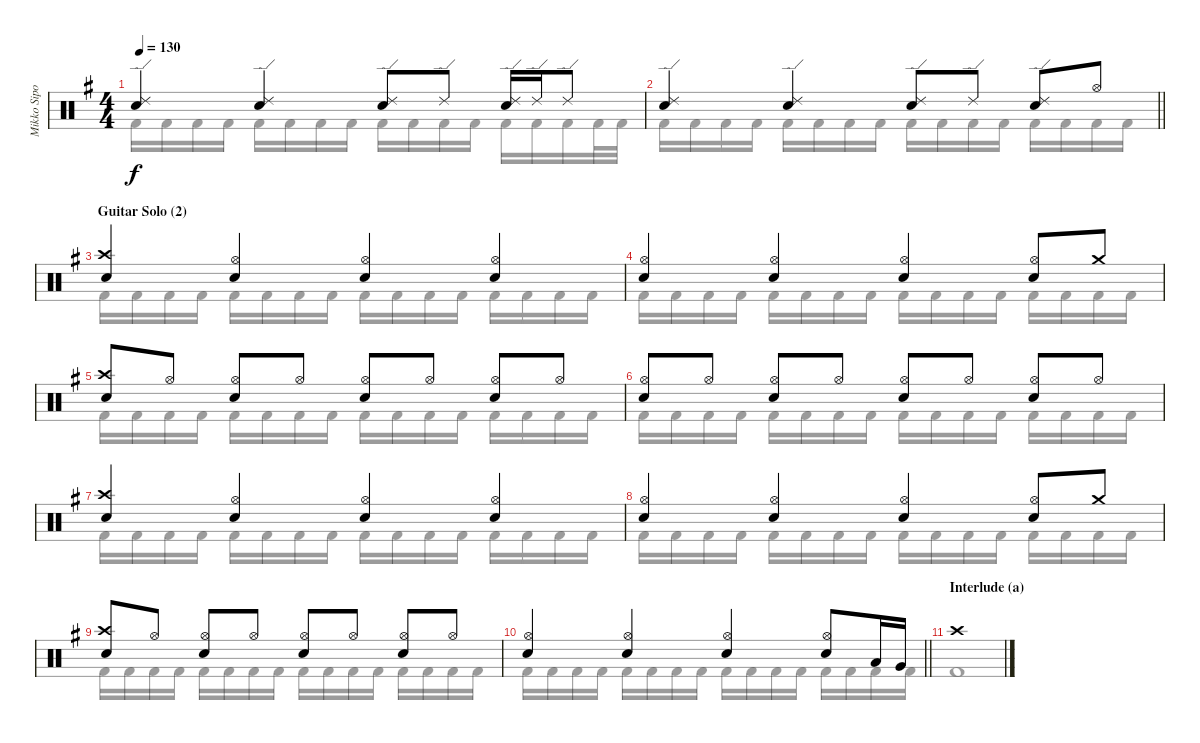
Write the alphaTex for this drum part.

\track ("Mikko Sipola (drums)" "Mikko Sipo") {instrument percussion}
\staff {score}
\articulation defaults
\voice
\ts (4 4)
\tempo 130
\clef neutral
\ks eminor
("Ride (edge) 2" "Electric Snare (hit)").4{dy f} ("Ride (edge) 2" "Electric Snare (hit)").4 ("Ride (edge) 2" "Electric Snare (hit)").8 "Ride (edge) 2".8 ("Ride (edge) 2" "Electric Snare (hit)").16 "Ride (edge) 2".16 "Ride (edge) 2".8 |
\barLineRight lightlight
("Ride (edge) 2" "Electric Snare (hit)").4 ("Ride (edge) 2" "Electric Snare (hit)").4 ("Ride (edge) 2" "Electric Snare (hit)").8 "Ride (edge) 2".8 ("Ride (edge) 2" "Electric Snare (hit)").8 "Hi-Hat (open)".8 |
\section ("" "Guitar Solo (2)")
("Crash high (hit)" "Electric Snare (hit)").4 ("Hi-Hat (open)" "Electric Snare (hit)").4 ("Hi-Hat (open)" "Electric Snare (hit)").4 ("Hi-Hat (open)" "Electric Snare (hit)").4 |
("Hi-Hat (open)" "Electric Snare (hit)").4 ("Hi-Hat (open)" "Electric Snare (hit)").4 ("Hi-Hat (open)" "Electric Snare (hit)").4 ("Hi-Hat (open)" "Electric Snare (hit)").8 "Crash medium (hit)".8 |
("Crash high (hit)" "Electric Snare (hit)").8 "Hi-Hat (open)".8 ("Hi-Hat (open)" "Electric Snare (hit)").8 "Hi-Hat (open)".8 ("Hi-Hat (open)" "Electric Snare (hit)").8 "Hi-Hat (open)".8 ("Hi-Hat (open)" "Electric Snare (hit)").8 "Hi-Hat (open)".8 |
("Hi-Hat (open)" "Electric Snare (hit)").8 "Hi-Hat (open)".8 ("Hi-Hat (open)" "Electric Snare (hit)").8 "Hi-Hat (open)".8 ("Hi-Hat (open)" "Electric Snare (hit)").8 "Hi-Hat (open)".8 ("Hi-Hat (open)" "Electric Snare (hit)").8 "Hi-Hat (open)".8 |
("Crash high (hit)" "Electric Snare (hit)").4 ("Hi-Hat (open)" "Electric Snare (hit)").4 ("Hi-Hat (open)" "Electric Snare (hit)").4 ("Hi-Hat (open)" "Electric Snare (hit)").4 |
("Hi-Hat (open)" "Electric Snare (hit)").4 ("Hi-Hat (open)" "Electric Snare (hit)").4 ("Hi-Hat (open)" "Electric Snare (hit)").4 ("Hi-Hat (open)" "Electric Snare (hit)").8 "Crash medium (hit)".8 |
("Crash high (hit)" "Electric Snare (hit)").8 "Hi-Hat (open)".8 ("Hi-Hat (open)" "Electric Snare (hit)").8 "Hi-Hat (open)".8 ("Hi-Hat (open)" "Electric Snare (hit)").8 "Hi-Hat (open)".8 ("Hi-Hat (open)" "Electric Snare (hit)").8 "Hi-Hat (open)".8 |
\barLineRight lightlight
("Hi-Hat (open)" "Electric Snare (hit)").4 ("Hi-Hat (open)" "Electric Snare (hit)").4 ("Hi-Hat (open)" "Electric Snare (hit)").4 ("Hi-Hat (open)" "Electric Snare (hit)").8 "Low Tom (hit)".16 "Very Low Tom (hit)".16 |
\section ("" "Interlude (a)")
"Crash high (hit)".1 |
|
|
|
|
\voice
\clef neutral
\ottava regular
\simile none
\ks eminor "Kick (hit) 2".16{dy f} "Kick (hit) 2".16 "Kick (hit) 2".16 "Kick (hit) 2".16 "Kick (hit) 2".16 "Kick (hit) 2".16 "Kick (hit) 2".16 "Kick (hit) 2".16 "Kick (hit) 2".16 "Kick (hit) 2".16 "Kick (hit) 2".16 "Kick (hit) 2".16 "Kick (hit) 2".16 "Kick (hit) 2".16 "Kick (hit) 2".16 "Kick (hit) 2".32 "Kick (hit) 2".32
|
\barLineRight lightlight "Kick (hit) 2".16 "Kick (hit) 2".16 "Kick (hit) 2".16 "Kick (hit) 2".16 "Kick (hit) 2".16 "Kick (hit) 2".16 "Kick (hit) 2".16 "Kick (hit) 2".16 "Kick (hit) 2".16 "Kick (hit) 2".16 "Kick (hit) 2".16 "Kick (hit) 2".16 "Kick (hit) 2".16 "Kick (hit) 2".16 "Kick (hit) 2".16 "Kick (hit) 2".16
|
"Kick (hit) 2".16 "Kick (hit) 2".16 "Kick (hit) 2".16 "Kick (hit) 2".16 "Kick (hit) 2".16 "Kick (hit) 2".16 "Kick (hit) 2".16 "Kick (hit) 2".16 "Kick (hit) 2".16 "Kick (hit) 2".16 "Kick (hit) 2".16 "Kick (hit) 2".16 "Kick (hit) 2".16 "Kick (hit) 2".16 "Kick (hit) 2".16 "Kick (hit) 2".16 |
"Kick (hit) 2".16 "Kick (hit) 2".16 "Kick (hit) 2".16 "Kick (hit) 2".16 "Kick (hit) 2".16 "Kick (hit) 2".16 "Kick (hit) 2".16 "Kick (hit) 2".16 "Kick (hit) 2".16 "Kick (hit) 2".16 "Kick (hit) 2".16 "Kick (hit) 2".16 "Kick (hit) 2".16 "Kick (hit) 2".16 "Kick (hit) 2".16 "Kick (hit) 2".16 |
"Kick (hit) 2".16 "Kick (hit) 2".16 "Kick (hit) 2".16 "Kick (hit) 2".16 "Kick (hit) 2".16 "Kick (hit) 2".16 "Kick (hit) 2".16 "Kick (hit) 2".16 "Kick (hit) 2".16 "Kick (hit) 2".16 "Kick (hit) 2".16 "Kick (hit) 2".16 "Kick (hit) 2".16 "Kick (hit) 2".16 "Kick (hit) 2".16 "Kick (hit) 2".16 |
"Kick (hit) 2".16 "Kick (hit) 2".16 "Kick (hit) 2".16 "Kick (hit) 2".16 "Kick (hit) 2".16 "Kick (hit) 2".16 "Kick (hit) 2".16 "Kick (hit) 2".16 "Kick (hit) 2".16 "Kick (hit) 2".16 "Kick (hit) 2".16 "Kick (hit) 2".16 "Kick (hit) 2".16 "Kick (hit) 2".16 "Kick (hit) 2".16 "Kick (hit) 2".16 |
"Kick (hit) 2".16 "Kick (hit) 2".16 "Kick (hit) 2".16 "Kick (hit) 2".16 "Kick (hit) 2".16 "Kick (hit) 2".16 "Kick (hit) 2".16 "Kick (hit) 2".16 "Kick (hit) 2".16 "Kick (hit) 2".16 "Kick (hit) 2".16 "Kick (hit) 2".16 "Kick (hit) 2".16 "Kick (hit) 2".16 "Kick (hit) 2".16 "Kick (hit) 2".16 |
"Kick (hit) 2".16 "Kick (hit) 2".16 "Kick (hit) 2".16 "Kick (hit) 2".16 "Kick (hit) 2".16 "Kick (hit) 2".16 "Kick (hit) 2".16 "Kick (hit) 2".16 "Kick (hit) 2".16 "Kick (hit) 2".16 "Kick (hit) 2".16 "Kick (hit) 2".16 "Kick (hit) 2".16 "Kick (hit) 2".16 "Kick (hit) 2".16 "Kick (hit) 2".16 |
"Kick (hit) 2".16 "Kick (hit) 2".16 "Kick (hit) 2".16 "Kick (hit) 2".16 "Kick (hit) 2".16 "Kick (hit) 2".16 "Kick (hit) 2".16 "Kick (hit) 2".16 "Kick (hit) 2".16 "Kick (hit) 2".16 "Kick (hit) 2".16 "Kick (hit) 2".16 "Kick (hit) 2".16 "Kick (hit) 2".16 "Kick (hit) 2".16 "Kick (hit) 2".16 |
\barLineRight lightlight "Kick (hit) 2".16 "Kick (hit) 2".16 "Kick (hit) 2".16 "Kick (hit) 2".16 "Kick (hit) 2".16 "Kick (hit) 2".16 "Kick (hit) 2".16 "Kick (hit) 2".16 "Kick (hit) 2".16 "Kick (hit) 2".16 "Kick (hit) 2".16 "Kick (hit) 2".16 "Kick (hit) 2".16 "Kick (hit) 2".16 "Kick (hit) 2".16 "Kick (hit) 2".16
|
"Kick (hit) 2".1 |
|
|
|
|
